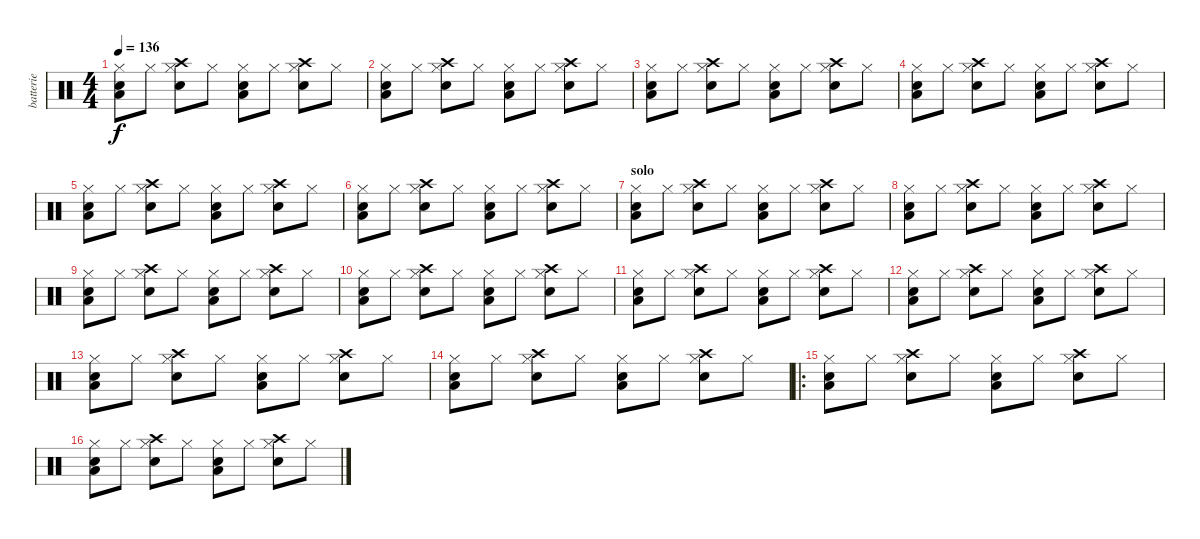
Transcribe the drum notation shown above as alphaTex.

\track ("batterie" "batterie") {instrument percussion}
\staff {score}
\articulation defaults
\ts (4 4)
\tempo 136
\clef neutral
\ks c
("Hi-Hat (closed)" "Snare (hit) 2" "Low Floor Tom (hit)").8{dy f} "Hi-Hat (closed)".8 ("Hi-Hat (closed)" "Crash high (hit)" "Electric Snare (hit)").8 "Hi-Hat (closed)".8 ("Hi-Hat (closed)" "Snare (hit) 2" "Low Floor Tom (hit)").8 "Hi-Hat (closed)".8 ("Hi-Hat (closed)" "Crash high (hit)" "Electric Snare (hit)").8 "Hi-Hat (closed)".8 |
("Hi-Hat (closed)" "Snare (hit) 2" "Low Floor Tom (hit)").8 "Hi-Hat (closed)".8 ("Hi-Hat (closed)" "Crash high (hit)" "Electric Snare (hit)").8 "Hi-Hat (closed)".8 ("Hi-Hat (closed)" "Snare (hit) 2" "Low Floor Tom (hit)").8 "Hi-Hat (closed)".8 ("Hi-Hat (closed)" "Crash high (hit)" "Electric Snare (hit)").8 "Hi-Hat (closed)".8 |
("Hi-Hat (closed)" "Snare (hit) 2" "Low Floor Tom (hit)").8 "Hi-Hat (closed)".8 ("Hi-Hat (closed)" "Crash high (hit)" "Electric Snare (hit)").8 "Hi-Hat (closed)".8 ("Hi-Hat (closed)" "Snare (hit) 2" "Low Floor Tom (hit)").8 "Hi-Hat (closed)".8 ("Hi-Hat (closed)" "Crash high (hit)" "Electric Snare (hit)").8 "Hi-Hat (closed)".8 |
("Hi-Hat (closed)" "Snare (hit) 2" "Low Floor Tom (hit)").8 "Hi-Hat (closed)".8 ("Hi-Hat (closed)" "Crash high (hit)" "Electric Snare (hit)").8 "Hi-Hat (closed)".8 ("Hi-Hat (closed)" "Snare (hit) 2" "Low Floor Tom (hit)").8 "Hi-Hat (closed)".8 ("Hi-Hat (closed)" "Crash high (hit)" "Electric Snare (hit)").8 "Hi-Hat (closed)".8 |
("Hi-Hat (closed)" "Snare (hit) 2" "Low Floor Tom (hit)").8 "Hi-Hat (closed)".8 ("Hi-Hat (closed)" "Crash high (hit)" "Electric Snare (hit)").8 "Hi-Hat (closed)".8 ("Hi-Hat (closed)" "Snare (hit) 2" "Low Floor Tom (hit)").8 "Hi-Hat (closed)".8 ("Hi-Hat (closed)" "Crash high (hit)" "Electric Snare (hit)").8 "Hi-Hat (closed)".8 |
("Hi-Hat (closed)" "Snare (hit) 2" "Low Floor Tom (hit)").8 "Hi-Hat (closed)".8 ("Hi-Hat (closed)" "Crash high (hit)" "Electric Snare (hit)").8 "Hi-Hat (closed)".8 ("Hi-Hat (closed)" "Snare (hit) 2" "Low Floor Tom (hit)").8 "Hi-Hat (closed)".8 ("Hi-Hat (closed)" "Crash high (hit)" "Electric Snare (hit)").8 "Hi-Hat (closed)".8 |
\section ("" "solo")
("Hi-Hat (closed)" "Snare (hit) 2" "Low Floor Tom (hit)").8 "Hi-Hat (closed)".8 ("Hi-Hat (closed)" "Crash high (hit)" "Electric Snare (hit)").8 "Hi-Hat (closed)".8 ("Hi-Hat (closed)" "Snare (hit) 2" "Low Floor Tom (hit)").8 "Hi-Hat (closed)".8 ("Hi-Hat (closed)" "Crash high (hit)" "Electric Snare (hit)").8 "Hi-Hat (closed)".8 |
("Hi-Hat (closed)" "Snare (hit) 2" "Low Floor Tom (hit)").8 "Hi-Hat (closed)".8 ("Hi-Hat (closed)" "Crash high (hit)" "Electric Snare (hit)").8 "Hi-Hat (closed)".8 ("Hi-Hat (closed)" "Snare (hit) 2" "Low Floor Tom (hit)").8 "Hi-Hat (closed)".8 ("Hi-Hat (closed)" "Crash high (hit)" "Electric Snare (hit)").8 "Hi-Hat (closed)".8 |
("Hi-Hat (closed)" "Snare (hit) 2" "Low Floor Tom (hit)").8 "Hi-Hat (closed)".8 ("Hi-Hat (closed)" "Crash high (hit)" "Electric Snare (hit)").8 "Hi-Hat (closed)".8 ("Hi-Hat (closed)" "Snare (hit) 2" "Low Floor Tom (hit)").8 "Hi-Hat (closed)".8 ("Hi-Hat (closed)" "Crash high (hit)" "Electric Snare (hit)").8 "Hi-Hat (closed)".8 |
("Hi-Hat (closed)" "Snare (hit) 2" "Low Floor Tom (hit)").8 "Hi-Hat (closed)".8 ("Hi-Hat (closed)" "Crash high (hit)" "Electric Snare (hit)").8 "Hi-Hat (closed)".8 ("Hi-Hat (closed)" "Snare (hit) 2" "Low Floor Tom (hit)").8 "Hi-Hat (closed)".8 ("Hi-Hat (closed)" "Crash high (hit)" "Electric Snare (hit)").8 "Hi-Hat (closed)".8 |
("Hi-Hat (closed)" "Snare (hit) 2" "Low Floor Tom (hit)").8 "Hi-Hat (closed)".8 ("Hi-Hat (closed)" "Crash high (hit)" "Electric Snare (hit)").8 "Hi-Hat (closed)".8 ("Hi-Hat (closed)" "Snare (hit) 2" "Low Floor Tom (hit)").8 "Hi-Hat (closed)".8 ("Hi-Hat (closed)" "Crash high (hit)" "Electric Snare (hit)").8 "Hi-Hat (closed)".8 |
("Hi-Hat (closed)" "Snare (hit) 2" "Low Floor Tom (hit)").8 "Hi-Hat (closed)".8 ("Hi-Hat (closed)" "Crash high (hit)" "Electric Snare (hit)").8 "Hi-Hat (closed)".8 ("Hi-Hat (closed)" "Snare (hit) 2" "Low Floor Tom (hit)").8 "Hi-Hat (closed)".8 ("Hi-Hat (closed)" "Crash high (hit)" "Electric Snare (hit)").8 "Hi-Hat (closed)".8 |
("Hi-Hat (closed)" "Snare (hit) 2" "Low Floor Tom (hit)").8 "Hi-Hat (closed)".8 ("Hi-Hat (closed)" "Crash high (hit)" "Electric Snare (hit)").8 "Hi-Hat (closed)".8 ("Hi-Hat (closed)" "Snare (hit) 2" "Low Floor Tom (hit)").8 "Hi-Hat (closed)".8 ("Hi-Hat (closed)" "Crash high (hit)" "Electric Snare (hit)").8 "Hi-Hat (closed)".8 |
("Hi-Hat (closed)" "Snare (hit) 2" "Low Floor Tom (hit)").8 "Hi-Hat (closed)".8 ("Hi-Hat (closed)" "Crash high (hit)" "Electric Snare (hit)").8 "Hi-Hat (closed)".8 ("Hi-Hat (closed)" "Snare (hit) 2" "Low Floor Tom (hit)").8 "Hi-Hat (closed)".8 ("Hi-Hat (closed)" "Crash high (hit)" "Electric Snare (hit)").8 "Hi-Hat (closed)".8 |
\ro
("Hi-Hat (closed)" "Snare (hit) 2" "Low Floor Tom (hit)").8 "Hi-Hat (closed)".8 ("Hi-Hat (closed)" "Crash high (hit)" "Electric Snare (hit)").8 "Hi-Hat (closed)".8 ("Hi-Hat (closed)" "Snare (hit) 2" "Low Floor Tom (hit)").8 "Hi-Hat (closed)".8 ("Hi-Hat (closed)" "Crash high (hit)" "Electric Snare (hit)").8 "Hi-Hat (closed)".8 |
("Hi-Hat (closed)" "Snare (hit) 2" "Low Floor Tom (hit)").8 "Hi-Hat (closed)".8 ("Hi-Hat (closed)" "Crash high (hit)" "Electric Snare (hit)").8 "Hi-Hat (closed)".8 ("Hi-Hat (closed)" "Snare (hit) 2" "Low Floor Tom (hit)").8 "Hi-Hat (closed)".8 ("Hi-Hat (closed)" "Crash high (hit)" "Electric Snare (hit)").8 "Hi-Hat (closed)".8
